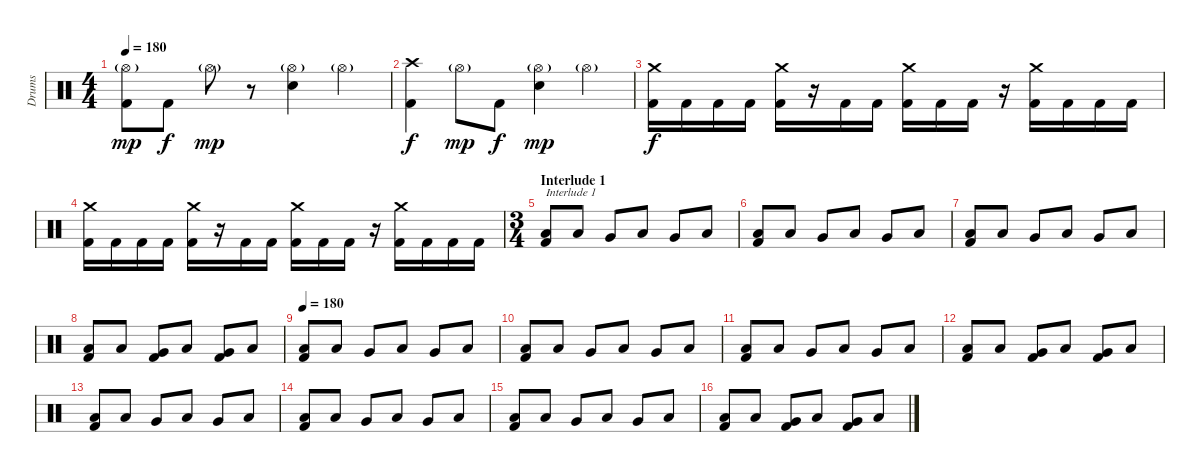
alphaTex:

\track ("Drums" "Drums") {instrument percussion}
\staff {score}
\articulation defaults
\ts (4 4)
\tempo 180
\clef neutral
\ks c
("Hi-Hat (open)"{g} "Kick (hit) 2").8{dy mp} "Kick (hit) 2".8{dy f} "Hi-Hat (open)"{g}.8{dy mp} r.8 ("Hi-Hat (open)"{g} "Electric Snare (hit)").4 "Hi-Hat (open)"{g}.4 |
("Crash high (hit)" "Kick (hit) 2").4{dy f} "Hi-Hat (open)"{g}.8{dy mp} "Kick (hit) 2".8{dy f} ("Hi-Hat (open)"{g} "Electric Snare (hit)").4{dy mp} "Hi-Hat (open)"{g}.4 |
("Crash medium (hit)" "Kick (hit) 2").16{dy f} "Kick (hit) 2".16 "Kick (hit) 2".16 "Kick (hit) 2".16 ("Crash medium (hit)" "Kick (hit) 2").16 r.16 "Kick (hit) 2".16 "Kick (hit) 2".16 ("Crash medium (hit)" "Kick (hit) 2").16 "Kick (hit) 2".16 "Kick (hit) 2".16 r.16 ("Crash medium (hit)" "Kick (hit) 2").16 "Kick (hit) 2".16 "Kick (hit) 2".16 "Kick (hit) 2".16 |
("Crash medium (hit)" "Kick (hit) 2").16 "Kick (hit) 2".16 "Kick (hit) 2".16 "Kick (hit) 2".16 ("Crash medium (hit)" "Kick (hit) 2").16 r.16 "Kick (hit) 2".16 "Kick (hit) 2".16 ("Crash medium (hit)" "Kick (hit) 2").16 "Kick (hit) 2".16 "Kick (hit) 2".16 r.16 ("Crash medium (hit)" "Kick (hit) 2").16 "Kick (hit) 2".16 "Kick (hit) 2".16 "Kick (hit) 2".16 |
\ts (3 4)
\section ("" "Interlude 1")
("Low Tom (hit)" "Kick (hit) 2").8{txt "Interlude 1"} "Low Floor Tom (hit)".8 "Very Low Tom (hit)".8 "Low Tom (hit)".8 "Very Low Tom (hit)".8 "Low Tom (hit)".8 |
("Low Tom (hit)" "Kick (hit) 2").8 "Low Floor Tom (hit)".8 "Very Low Tom (hit)".8 "Low Tom (hit)".8 "Very Low Tom (hit)".8 "Low Tom (hit)".8 |
("Low Tom (hit)" "Kick (hit) 2").8 "Low Floor Tom (hit)".8 "Very Low Tom (hit)".8 "Low Tom (hit)".8 "Very Low Tom (hit)".8 "Low Tom (hit)".8 |
("Low Tom (hit)" "Kick (hit) 2").8 "Low Floor Tom (hit)".8 ("Very Low Tom (hit)" "Kick (hit) 2").8 "Low Tom (hit)".8 ("Very Low Tom (hit)" "Kick (hit) 2").8 "Low Tom (hit)".8 |
\tempo 180
("Low Tom (hit)" "Kick (hit) 2").8 "Low Floor Tom (hit)".8 "Very Low Tom (hit)".8 "Low Tom (hit)".8 "Very Low Tom (hit)".8 "Low Tom (hit)".8 |
("Low Tom (hit)" "Kick (hit) 2").8 "Low Floor Tom (hit)".8 "Very Low Tom (hit)".8 "Low Tom (hit)".8 "Very Low Tom (hit)".8 "Low Tom (hit)".8 |
("Low Tom (hit)" "Kick (hit) 2").8 "Low Floor Tom (hit)".8 "Very Low Tom (hit)".8 "Low Tom (hit)".8 "Very Low Tom (hit)".8 "Low Tom (hit)".8 |
("Low Tom (hit)" "Kick (hit) 2").8 "Low Floor Tom (hit)".8 ("Very Low Tom (hit)" "Kick (hit) 2").8 "Low Tom (hit)".8 ("Very Low Tom (hit)" "Kick (hit) 2").8 "Low Tom (hit)".8 |
("Low Tom (hit)" "Kick (hit) 2").8 "Low Floor Tom (hit)".8 "Very Low Tom (hit)".8 "Low Tom (hit)".8 "Very Low Tom (hit)".8 "Low Tom (hit)".8 |
("Low Tom (hit)" "Kick (hit) 2").8 "Low Floor Tom (hit)".8 "Very Low Tom (hit)".8 "Low Tom (hit)".8 "Very Low Tom (hit)".8 "Low Tom (hit)".8 |
("Low Tom (hit)" "Kick (hit) 2").8 "Low Floor Tom (hit)".8 "Very Low Tom (hit)".8 "Low Tom (hit)".8 "Very Low Tom (hit)".8 "Low Tom (hit)".8 |
("Low Tom (hit)" "Kick (hit) 2").8 "Low Floor Tom (hit)".8 ("Very Low Tom (hit)" "Kick (hit) 2").8 "Low Tom (hit)".8 ("Very Low Tom (hit)" "Kick (hit) 2").8 "Low Tom (hit)".8
